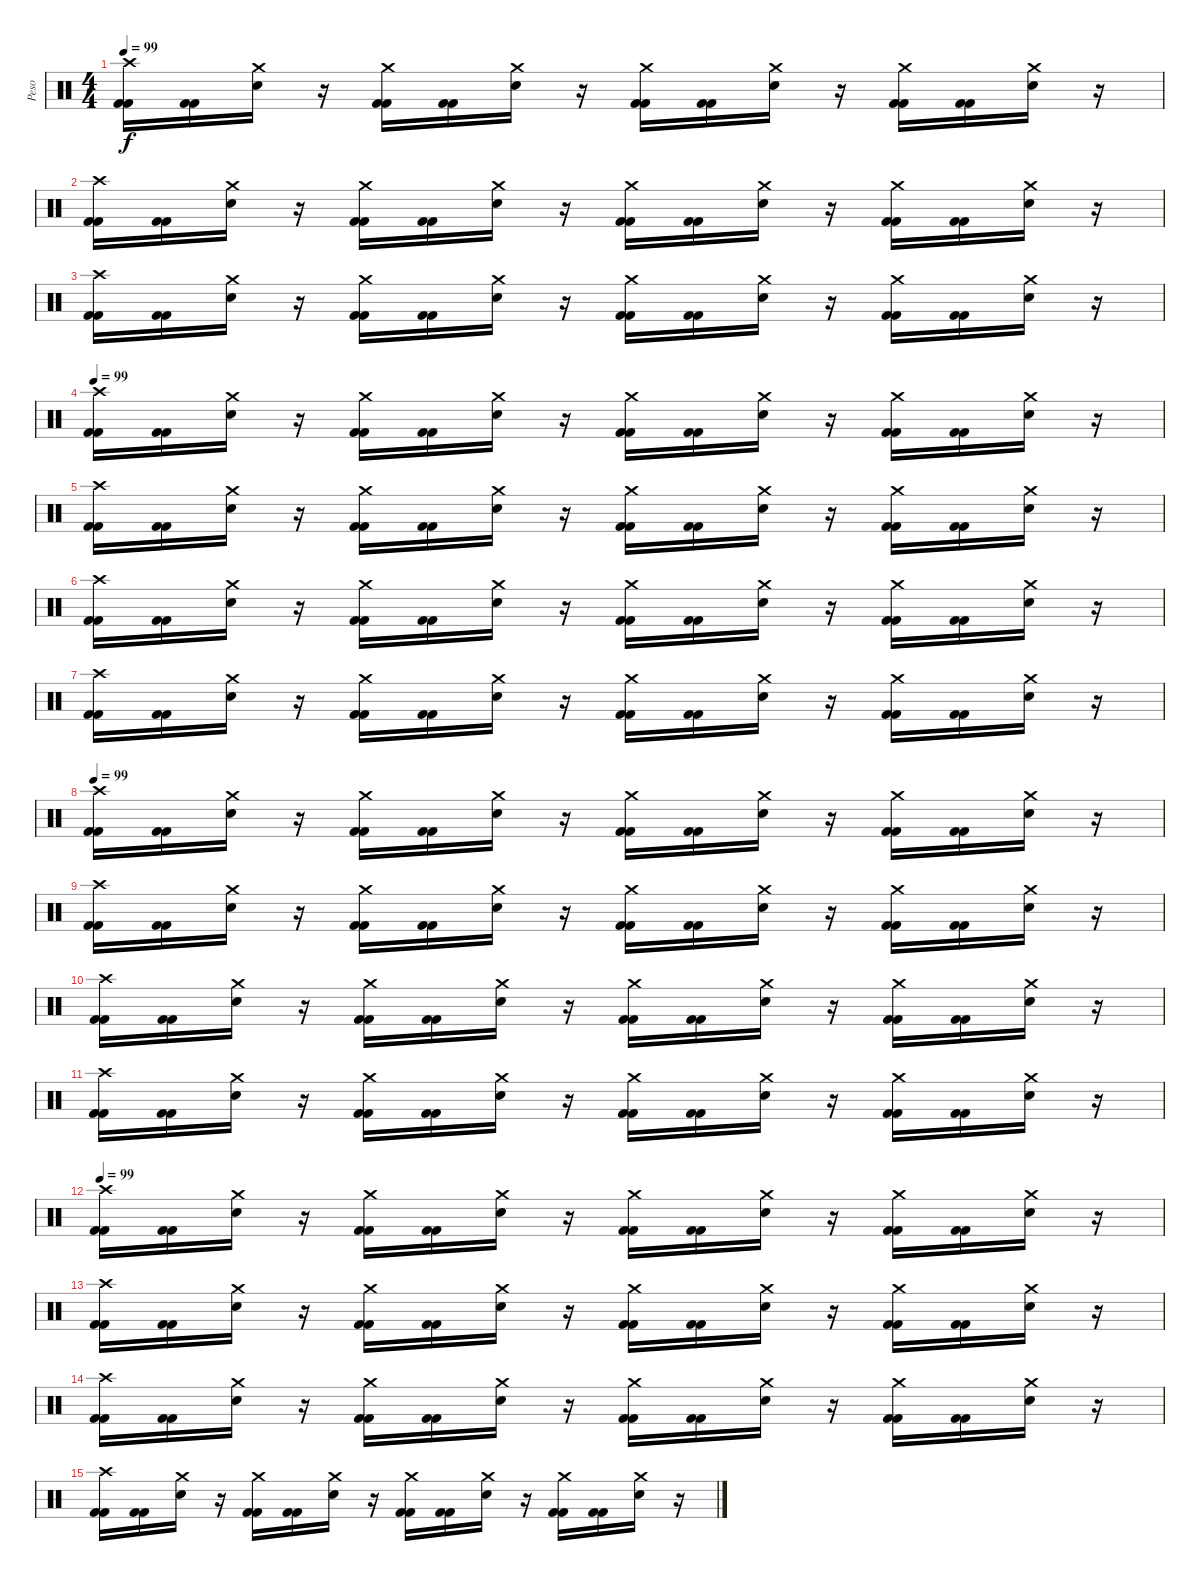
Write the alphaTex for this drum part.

\track ("Peso" "Peso") {instrument percussion}
\staff {score}
\articulation defaults
\ts (4 4)
\tempo 99
\clef neutral
\ks c
("Crash high (hit)" "Kick (hit) 2" "Kick (hit) 2").16{dy f} ("Kick (hit) 2" "Kick (hit) 2").16 ("Crash medium (hit)" "Electric Snare (hit)").16 r.16 ("Crash medium (hit)" "Kick (hit) 2" "Kick (hit) 2").16 ("Kick (hit) 2" "Kick (hit) 2").16 ("Crash medium (hit)" "Electric Snare (hit)").16 r.16 ("Crash medium (hit)" "Kick (hit) 2" "Kick (hit) 2").16 ("Kick (hit) 2" "Kick (hit) 2").16 ("Crash medium (hit)" "Electric Snare (hit)").16 r.16 ("Crash medium (hit)" "Kick (hit) 2" "Kick (hit) 2").16 ("Kick (hit) 2" "Kick (hit) 2").16 ("Crash medium (hit)" "Electric Snare (hit)").16 r.16 |
("Crash high (hit)" "Kick (hit) 2" "Kick (hit) 2").16 ("Kick (hit) 2" "Kick (hit) 2").16 ("Crash medium (hit)" "Electric Snare (hit)").16 r.16 ("Crash medium (hit)" "Kick (hit) 2" "Kick (hit) 2").16 ("Kick (hit) 2" "Kick (hit) 2").16 ("Crash medium (hit)" "Electric Snare (hit)").16 r.16 ("Crash medium (hit)" "Kick (hit) 2" "Kick (hit) 2").16 ("Kick (hit) 2" "Kick (hit) 2").16 ("Crash medium (hit)" "Electric Snare (hit)").16 r.16 ("Crash medium (hit)" "Kick (hit) 2" "Kick (hit) 2").16 ("Kick (hit) 2" "Kick (hit) 2").16 ("Crash medium (hit)" "Electric Snare (hit)").16 r.16 |
("Crash high (hit)" "Kick (hit) 2" "Kick (hit) 2").16 ("Kick (hit) 2" "Kick (hit) 2").16 ("Crash medium (hit)" "Electric Snare (hit)").16 r.16 ("Crash medium (hit)" "Kick (hit) 2" "Kick (hit) 2").16 ("Kick (hit) 2" "Kick (hit) 2").16 ("Crash medium (hit)" "Electric Snare (hit)").16 r.16 ("Crash medium (hit)" "Kick (hit) 2" "Kick (hit) 2").16 ("Kick (hit) 2" "Kick (hit) 2").16 ("Crash medium (hit)" "Electric Snare (hit)").16 r.16 ("Crash medium (hit)" "Kick (hit) 2" "Kick (hit) 2").16 ("Kick (hit) 2" "Kick (hit) 2").16 ("Crash medium (hit)" "Electric Snare (hit)").16 r.16 |
\tempo 99
("Crash high (hit)" "Kick (hit) 2" "Kick (hit) 2").16 ("Kick (hit) 2" "Kick (hit) 2").16 ("Crash medium (hit)" "Electric Snare (hit)").16 r.16 ("Crash medium (hit)" "Kick (hit) 2" "Kick (hit) 2").16 ("Kick (hit) 2" "Kick (hit) 2").16 ("Crash medium (hit)" "Electric Snare (hit)").16 r.16 ("Crash medium (hit)" "Kick (hit) 2" "Kick (hit) 2").16 ("Kick (hit) 2" "Kick (hit) 2").16 ("Crash medium (hit)" "Electric Snare (hit)").16 r.16 ("Crash medium (hit)" "Kick (hit) 2" "Kick (hit) 2").16 ("Kick (hit) 2" "Kick (hit) 2").16 ("Crash medium (hit)" "Electric Snare (hit)").16 r.16 |
("Crash high (hit)" "Kick (hit) 2" "Kick (hit) 2").16 ("Kick (hit) 2" "Kick (hit) 2").16 ("Crash medium (hit)" "Electric Snare (hit)").16 r.16 ("Crash medium (hit)" "Kick (hit) 2" "Kick (hit) 2").16 ("Kick (hit) 2" "Kick (hit) 2").16 ("Crash medium (hit)" "Electric Snare (hit)").16 r.16 ("Crash medium (hit)" "Kick (hit) 2" "Kick (hit) 2").16 ("Kick (hit) 2" "Kick (hit) 2").16 ("Crash medium (hit)" "Electric Snare (hit)").16 r.16 ("Crash medium (hit)" "Kick (hit) 2" "Kick (hit) 2").16 ("Kick (hit) 2" "Kick (hit) 2").16 ("Crash medium (hit)" "Electric Snare (hit)").16 r.16 |
("Crash high (hit)" "Kick (hit) 2" "Kick (hit) 2").16 ("Kick (hit) 2" "Kick (hit) 2").16 ("Crash medium (hit)" "Electric Snare (hit)").16 r.16 ("Crash medium (hit)" "Kick (hit) 2" "Kick (hit) 2").16 ("Kick (hit) 2" "Kick (hit) 2").16 ("Crash medium (hit)" "Electric Snare (hit)").16 r.16 ("Crash medium (hit)" "Kick (hit) 2" "Kick (hit) 2").16 ("Kick (hit) 2" "Kick (hit) 2").16 ("Crash medium (hit)" "Electric Snare (hit)").16 r.16 ("Crash medium (hit)" "Kick (hit) 2" "Kick (hit) 2").16 ("Kick (hit) 2" "Kick (hit) 2").16 ("Crash medium (hit)" "Electric Snare (hit)").16 r.16 |
("Crash high (hit)" "Kick (hit) 2" "Kick (hit) 2").16 ("Kick (hit) 2" "Kick (hit) 2").16 ("Crash medium (hit)" "Electric Snare (hit)").16 r.16 ("Crash medium (hit)" "Kick (hit) 2" "Kick (hit) 2").16 ("Kick (hit) 2" "Kick (hit) 2").16 ("Crash medium (hit)" "Electric Snare (hit)").16 r.16 ("Crash medium (hit)" "Kick (hit) 2" "Kick (hit) 2").16 ("Kick (hit) 2" "Kick (hit) 2").16 ("Crash medium (hit)" "Electric Snare (hit)").16 r.16 ("Crash medium (hit)" "Kick (hit) 2" "Kick (hit) 2").16 ("Kick (hit) 2" "Kick (hit) 2").16 ("Crash medium (hit)" "Electric Snare (hit)").16 r.16 |
\tempo 99
("Crash high (hit)" "Kick (hit) 2" "Kick (hit) 2").16 ("Kick (hit) 2" "Kick (hit) 2").16 ("Crash medium (hit)" "Electric Snare (hit)").16 r.16 ("Crash medium (hit)" "Kick (hit) 2" "Kick (hit) 2").16 ("Kick (hit) 2" "Kick (hit) 2").16 ("Crash medium (hit)" "Electric Snare (hit)").16 r.16 ("Crash medium (hit)" "Kick (hit) 2" "Kick (hit) 2").16 ("Kick (hit) 2" "Kick (hit) 2").16 ("Crash medium (hit)" "Electric Snare (hit)").16 r.16 ("Crash medium (hit)" "Kick (hit) 2" "Kick (hit) 2").16 ("Kick (hit) 2" "Kick (hit) 2").16 ("Crash medium (hit)" "Electric Snare (hit)").16 r.16 |
("Crash high (hit)" "Kick (hit) 2" "Kick (hit) 2").16 ("Kick (hit) 2" "Kick (hit) 2").16 ("Crash medium (hit)" "Electric Snare (hit)").16 r.16 ("Crash medium (hit)" "Kick (hit) 2" "Kick (hit) 2").16 ("Kick (hit) 2" "Kick (hit) 2").16 ("Crash medium (hit)" "Electric Snare (hit)").16 r.16 ("Crash medium (hit)" "Kick (hit) 2" "Kick (hit) 2").16 ("Kick (hit) 2" "Kick (hit) 2").16 ("Crash medium (hit)" "Electric Snare (hit)").16 r.16 ("Crash medium (hit)" "Kick (hit) 2" "Kick (hit) 2").16 ("Kick (hit) 2" "Kick (hit) 2").16 ("Crash medium (hit)" "Electric Snare (hit)").16 r.16 |
("Crash high (hit)" "Kick (hit) 2" "Kick (hit) 2").16 ("Kick (hit) 2" "Kick (hit) 2").16 ("Crash medium (hit)" "Electric Snare (hit)").16 r.16 ("Crash medium (hit)" "Kick (hit) 2" "Kick (hit) 2").16 ("Kick (hit) 2" "Kick (hit) 2").16 ("Crash medium (hit)" "Electric Snare (hit)").16 r.16 ("Crash medium (hit)" "Kick (hit) 2" "Kick (hit) 2").16 ("Kick (hit) 2" "Kick (hit) 2").16 ("Crash medium (hit)" "Electric Snare (hit)").16 r.16 ("Crash medium (hit)" "Kick (hit) 2" "Kick (hit) 2").16 ("Kick (hit) 2" "Kick (hit) 2").16 ("Crash medium (hit)" "Electric Snare (hit)").16 r.16 |
("Crash high (hit)" "Kick (hit) 2" "Kick (hit) 2").16 ("Kick (hit) 2" "Kick (hit) 2").16 ("Crash medium (hit)" "Electric Snare (hit)").16 r.16 ("Crash medium (hit)" "Kick (hit) 2" "Kick (hit) 2").16 ("Kick (hit) 2" "Kick (hit) 2").16 ("Crash medium (hit)" "Electric Snare (hit)").16 r.16 ("Crash medium (hit)" "Kick (hit) 2" "Kick (hit) 2").16 ("Kick (hit) 2" "Kick (hit) 2").16 ("Crash medium (hit)" "Electric Snare (hit)").16 r.16 ("Crash medium (hit)" "Kick (hit) 2" "Kick (hit) 2").16 ("Kick (hit) 2" "Kick (hit) 2").16 ("Crash medium (hit)" "Electric Snare (hit)").16 r.16 |
\tempo 99
("Crash high (hit)" "Kick (hit) 2" "Kick (hit) 2").16 ("Kick (hit) 2" "Kick (hit) 2").16 ("Crash medium (hit)" "Electric Snare (hit)").16 r.16 ("Crash medium (hit)" "Kick (hit) 2" "Kick (hit) 2").16 ("Kick (hit) 2" "Kick (hit) 2").16 ("Crash medium (hit)" "Electric Snare (hit)").16 r.16 ("Crash medium (hit)" "Kick (hit) 2" "Kick (hit) 2").16 ("Kick (hit) 2" "Kick (hit) 2").16 ("Crash medium (hit)" "Electric Snare (hit)").16 r.16 ("Crash medium (hit)" "Kick (hit) 2" "Kick (hit) 2").16 ("Kick (hit) 2" "Kick (hit) 2").16 ("Crash medium (hit)" "Electric Snare (hit)").16 r.16 |
("Crash high (hit)" "Kick (hit) 2" "Kick (hit) 2").16 ("Kick (hit) 2" "Kick (hit) 2").16 ("Crash medium (hit)" "Electric Snare (hit)").16 r.16 ("Crash medium (hit)" "Kick (hit) 2" "Kick (hit) 2").16 ("Kick (hit) 2" "Kick (hit) 2").16 ("Crash medium (hit)" "Electric Snare (hit)").16 r.16 ("Crash medium (hit)" "Kick (hit) 2" "Kick (hit) 2").16 ("Kick (hit) 2" "Kick (hit) 2").16 ("Crash medium (hit)" "Electric Snare (hit)").16 r.16 ("Crash medium (hit)" "Kick (hit) 2" "Kick (hit) 2").16 ("Kick (hit) 2" "Kick (hit) 2").16 ("Crash medium (hit)" "Electric Snare (hit)").16 r.16 |
("Crash high (hit)" "Kick (hit) 2" "Kick (hit) 2").16{volume 0} ("Kick (hit) 2" "Kick (hit) 2").16 ("Crash medium (hit)" "Electric Snare (hit)").16 r.16 ("Crash medium (hit)" "Kick (hit) 2" "Kick (hit) 2").16 ("Kick (hit) 2" "Kick (hit) 2").16 ("Crash medium (hit)" "Electric Snare (hit)").16 r.16 ("Crash medium (hit)" "Kick (hit) 2" "Kick (hit) 2").16 ("Kick (hit) 2" "Kick (hit) 2").16 ("Crash medium (hit)" "Electric Snare (hit)").16 r.16 ("Crash medium (hit)" "Kick (hit) 2" "Kick (hit) 2").16 ("Kick (hit) 2" "Kick (hit) 2").16 ("Crash medium (hit)" "Electric Snare (hit)").16 r.16 |
("Crash high (hit)" "Kick (hit) 2" "Kick (hit) 2").16{volume 0} ("Kick (hit) 2" "Kick (hit) 2").16 ("Crash medium (hit)" "Electric Snare (hit)").16 r.16 ("Crash medium (hit)" "Kick (hit) 2" "Kick (hit) 2").16 ("Kick (hit) 2" "Kick (hit) 2").16 ("Crash medium (hit)" "Electric Snare (hit)").16 r.16 ("Crash medium (hit)" "Kick (hit) 2" "Kick (hit) 2").16 ("Kick (hit) 2" "Kick (hit) 2").16 ("Crash medium (hit)" "Electric Snare (hit)").16 r.16 ("Crash medium (hit)" "Kick (hit) 2" "Kick (hit) 2").16 ("Kick (hit) 2" "Kick (hit) 2").16 ("Crash medium (hit)" "Electric Snare (hit)").16 r.16
